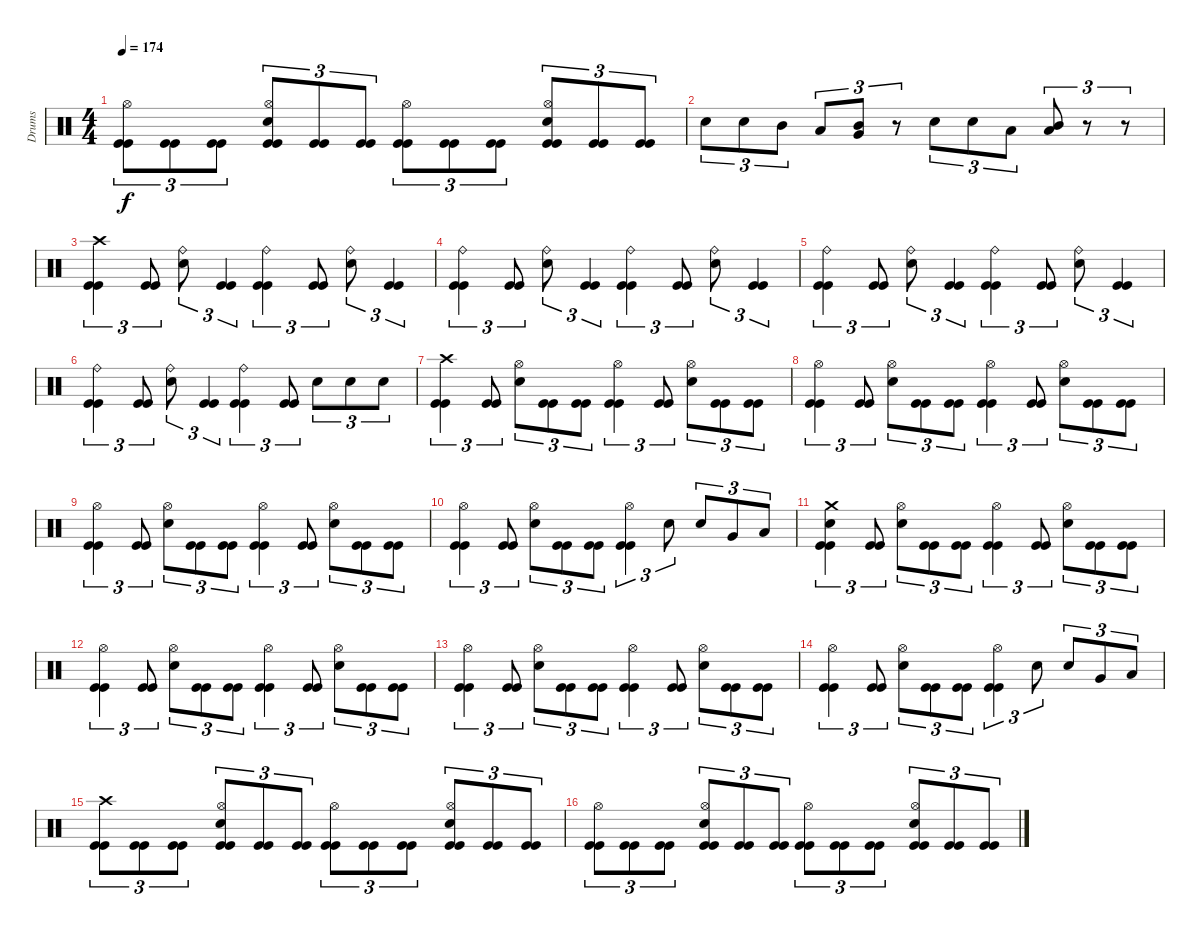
\track ("Drums" "Drums") {instrument percussion}
\staff {score}
\articulation defaults
\ts (4 4)
\tempo 174
\clef neutral
\ks c
("Kick (hit)" "Kick (hit)" "Hi-Hat (open)").8{tu (3 2) dy f} ("Kick (hit)" "Kick (hit)").8{tu (3 2)} ("Kick (hit)" "Kick (hit)").8{tu (3 2)} ("Kick (hit)" "Kick (hit)" "Snare (hit) 2" "Hi-Hat (open)").8{tu (3 2)} ("Kick (hit)" "Kick (hit)").8{tu (3 2)} ("Kick (hit)" "Kick (hit)").8{tu (3 2)} ("Kick (hit)" "Kick (hit)" "Hi-Hat (open)").8{tu (3 2)} ("Kick (hit)" "Kick (hit)").8{tu (3 2)} ("Kick (hit)" "Kick (hit)").8{tu (3 2)} ("Kick (hit)" "Kick (hit)" "Snare (hit) 2" "Hi-Hat (open)").8{tu (3 2)} ("Kick (hit)" "Kick (hit)").8{tu (3 2)} ("Kick (hit)" "Kick (hit)").8{tu (3 2)} |
"Snare (hit) 2".8{tu (3 2)} "Snare (hit) 2".8{tu (3 2)} "Mid Tom (hit)".8{tu (3 2)} "Low Tom (hit)".8{tu (3 2)} ("Very Low Tom (hit)" "Mid Tom (hit)").8{tu (3 2)} r.8{tu (3 2)} "Snare (hit) 2".8{tu (3 2)} "Snare (hit) 2".8{tu (3 2)} "Low Tom (hit)".8{tu (3 2)} ("Low Floor Tom (hit)" "Mid Tom (hit)").8{tu (3 2)} r.8{tu (3 2)} r.8{tu (3 2)} |
("Kick (hit)" "Kick (hit)" "Crash high (hit)").4{tu (3 2)} ("Kick (hit)" "Kick (hit)").8{tu (3 2)} ("Snare (hit) 2" "Ride (bell)").8{tu (3 2)} ("Kick (hit)" "Kick (hit)").4{tu (3 2)} ("Kick (hit)" "Kick (hit)" "Ride (bell)").4{tu (3 2)} ("Kick (hit)" "Kick (hit)").8{tu (3 2)} ("Snare (hit) 2" "Ride (bell)").8{tu (3 2)} ("Kick (hit)" "Kick (hit)").4{tu (3 2)} |
("Kick (hit)" "Kick (hit)" "Ride (bell)").4{tu (3 2)} ("Kick (hit)" "Kick (hit)").8{tu (3 2)} ("Snare (hit) 2" "Ride (bell)").8{tu (3 2)} ("Kick (hit)" "Kick (hit)").4{tu (3 2)} ("Kick (hit)" "Kick (hit)" "Ride (bell)").4{tu (3 2)} ("Kick (hit)" "Kick (hit)").8{tu (3 2)} ("Snare (hit) 2" "Ride (bell)").8{tu (3 2)} ("Kick (hit)" "Kick (hit)").4{tu (3 2)} |
("Kick (hit)" "Kick (hit)" "Ride (bell)").4{tu (3 2)} ("Kick (hit)" "Kick (hit)").8{tu (3 2)} ("Snare (hit) 2" "Ride (bell)").8{tu (3 2)} ("Kick (hit)" "Kick (hit)").4{tu (3 2)} ("Kick (hit)" "Kick (hit)" "Ride (bell)").4{tu (3 2)} ("Kick (hit)" "Kick (hit)").8{tu (3 2)} ("Snare (hit) 2" "Ride (bell)").8{tu (3 2)} ("Kick (hit)" "Kick (hit)").4{tu (3 2)} |
("Kick (hit)" "Kick (hit)" "Ride (bell)").4{tu (3 2)} ("Kick (hit)" "Kick (hit)").8{tu (3 2)} ("Snare (hit) 2" "Ride (bell)").8{tu (3 2)} ("Kick (hit)" "Kick (hit)").4{tu (3 2)} ("Kick (hit)" "Kick (hit)" "Ride (bell)").4{tu (3 2)} ("Kick (hit)" "Kick (hit)").8{tu (3 2)} "Snare (hit) 2".8{tu (3 2)} "Snare (hit) 2".8{tu (3 2)} "Snare (hit) 2".8{tu (3 2)} |
("Kick (hit)" "Kick (hit)" "Crash high (hit)").4{tu (3 2)} ("Kick (hit)" "Kick (hit)").8{tu (3 2)} ("Snare (hit) 2" "Hi-Hat (open)").8{tu (3 2)} ("Kick (hit)" "Kick (hit)").8{tu (3 2)} ("Kick (hit)" "Kick (hit)").8{tu (3 2)} ("Kick (hit)" "Kick (hit)" "Hi-Hat (open)").4{tu (3 2)} ("Kick (hit)" "Kick (hit)").8{tu (3 2)} ("Snare (hit) 2" "Hi-Hat (open)").8{tu (3 2)} ("Kick (hit)" "Kick (hit)").8{tu (3 2)} ("Kick (hit)" "Kick (hit)").8{tu (3 2)} |
("Kick (hit)" "Kick (hit)" "Hi-Hat (open)").4{tu (3 2)} ("Kick (hit)" "Kick (hit)").8{tu (3 2)} ("Snare (hit) 2" "Hi-Hat (open)").8{tu (3 2)} ("Kick (hit)" "Kick (hit)").8{tu (3 2)} ("Kick (hit)" "Kick (hit)").8{tu (3 2)} ("Kick (hit)" "Kick (hit)" "Hi-Hat (open)").4{tu (3 2)} ("Kick (hit)" "Kick (hit)").8{tu (3 2)} ("Snare (hit) 2" "Hi-Hat (open)").8{tu (3 2)} ("Kick (hit)" "Kick (hit)").8{tu (3 2)} ("Kick (hit)" "Kick (hit)").8{tu (3 2)} |
("Kick (hit)" "Kick (hit)" "Hi-Hat (open)").4{tu (3 2)} ("Kick (hit)" "Kick (hit)").8{tu (3 2)} ("Snare (hit) 2" "Hi-Hat (open)").8{tu (3 2)} ("Kick (hit)" "Kick (hit)").8{tu (3 2)} ("Kick (hit)" "Kick (hit)").8{tu (3 2)} ("Kick (hit)" "Kick (hit)" "Hi-Hat (open)").4{tu (3 2)} ("Kick (hit)" "Kick (hit)").8{tu (3 2)} ("Snare (hit) 2" "Hi-Hat (open)").8{tu (3 2)} ("Kick (hit)" "Kick (hit)").8{tu (3 2)} ("Kick (hit)" "Kick (hit)").8{tu (3 2)} |
("Kick (hit)" "Kick (hit)" "Hi-Hat (open)").4{tu (3 2)} ("Kick (hit)" "Kick (hit)").8{tu (3 2)} ("Snare (hit) 2" "Hi-Hat (open)").8{tu (3 2)} ("Kick (hit)" "Kick (hit)").8{tu (3 2)} ("Kick (hit)" "Kick (hit)").8{tu (3 2)} ("Kick (hit)" "Kick (hit)" "Hi-Hat (open)").4{tu (3 2)} "Snare (hit) 2".8{tu (3 2)} "Snare (hit) 2".8{tu (3 2)} "Very Low Tom (hit)".8{tu (3 2)} "Low Floor Tom (hit)".8{tu (3 2)} |
("Kick (hit)" "Kick (hit)" "Crash medium (hit)" "Snare (hit) 2").4{tu (3 2)} ("Kick (hit)" "Kick (hit)").8{tu (3 2)} ("Snare (hit) 2" "Hi-Hat (open)").8{tu (3 2)} ("Kick (hit)" "Kick (hit)").8{tu (3 2)} ("Kick (hit)" "Kick (hit)").8{tu (3 2)} ("Kick (hit)" "Kick (hit)" "Hi-Hat (open)").4{tu (3 2)} ("Kick (hit)" "Kick (hit)").8{tu (3 2)} ("Snare (hit) 2" "Hi-Hat (open)").8{tu (3 2)} ("Kick (hit)" "Kick (hit)").8{tu (3 2)} ("Kick (hit)" "Kick (hit)").8{tu (3 2)} |
("Kick (hit)" "Kick (hit)" "Hi-Hat (open)").4{tu (3 2)} ("Kick (hit)" "Kick (hit)").8{tu (3 2)} ("Snare (hit) 2" "Hi-Hat (open)").8{tu (3 2)} ("Kick (hit)" "Kick (hit)").8{tu (3 2)} ("Kick (hit)" "Kick (hit)").8{tu (3 2)} ("Kick (hit)" "Kick (hit)" "Hi-Hat (open)").4{tu (3 2)} ("Kick (hit)" "Kick (hit)").8{tu (3 2)} ("Snare (hit) 2" "Hi-Hat (open)").8{tu (3 2)} ("Kick (hit)" "Kick (hit)").8{tu (3 2)} ("Kick (hit)" "Kick (hit)").8{tu (3 2)} |
("Kick (hit)" "Kick (hit)" "Hi-Hat (open)").4{tu (3 2)} ("Kick (hit)" "Kick (hit)").8{tu (3 2)} ("Snare (hit) 2" "Hi-Hat (open)").8{tu (3 2)} ("Kick (hit)" "Kick (hit)").8{tu (3 2)} ("Kick (hit)" "Kick (hit)").8{tu (3 2)} ("Kick (hit)" "Kick (hit)" "Hi-Hat (open)").4{tu (3 2)} ("Kick (hit)" "Kick (hit)").8{tu (3 2)} ("Snare (hit) 2" "Hi-Hat (open)").8{tu (3 2)} ("Kick (hit)" "Kick (hit)").8{tu (3 2)} ("Kick (hit)" "Kick (hit)").8{tu (3 2)} |
("Kick (hit)" "Kick (hit)" "Hi-Hat (open)").4{tu (3 2)} ("Kick (hit)" "Kick (hit)").8{tu (3 2)} ("Snare (hit) 2" "Hi-Hat (open)").8{tu (3 2)} ("Kick (hit)" "Kick (hit)").8{tu (3 2)} ("Kick (hit)" "Kick (hit)").8{tu (3 2)} ("Kick (hit)" "Kick (hit)" "Hi-Hat (open)").4{tu (3 2)} "Snare (hit) 2".8{tu (3 2)} "Snare (hit) 2".8{tu (3 2)} "Very Low Tom (hit)".8{tu (3 2)} "Low Floor Tom (hit)".8{tu (3 2)} |
("Kick (hit)" "Kick (hit)" "Crash high (hit)").8{tu (3 2)} ("Kick (hit)" "Kick (hit)").8{tu (3 2)} ("Kick (hit)" "Kick (hit)").8{tu (3 2)} ("Kick (hit)" "Kick (hit)" "Snare (hit) 2" "Hi-Hat (open)").8{tu (3 2)} ("Kick (hit)" "Kick (hit)").8{tu (3 2)} ("Kick (hit)" "Kick (hit)").8{tu (3 2)} ("Kick (hit)" "Kick (hit)" "Hi-Hat (open)").8{tu (3 2)} ("Kick (hit)" "Kick (hit)").8{tu (3 2)} ("Kick (hit)" "Kick (hit)").8{tu (3 2)} ("Kick (hit)" "Kick (hit)" "Snare (hit) 2" "Hi-Hat (open)").8{tu (3 2)} ("Kick (hit)" "Kick (hit)").8{tu (3 2)} ("Kick (hit)" "Kick (hit)").8{tu (3 2)} |
("Kick (hit)" "Kick (hit)" "Hi-Hat (open)").8{tu (3 2)} ("Kick (hit)" "Kick (hit)").8{tu (3 2)} ("Kick (hit)" "Kick (hit)").8{tu (3 2)} ("Kick (hit)" "Kick (hit)" "Snare (hit) 2" "Hi-Hat (open)").8{tu (3 2)} ("Kick (hit)" "Kick (hit)").8{tu (3 2)} ("Kick (hit)" "Kick (hit)").8{tu (3 2)} ("Kick (hit)" "Kick (hit)" "Hi-Hat (open)").8{tu (3 2)} ("Kick (hit)" "Kick (hit)").8{tu (3 2)} ("Kick (hit)" "Kick (hit)").8{tu (3 2)} ("Kick (hit)" "Kick (hit)" "Snare (hit) 2" "Hi-Hat (open)").8{tu (3 2)} ("Kick (hit)" "Kick (hit)").8{tu (3 2)} ("Kick (hit)" "Kick (hit)").8{tu (3 2)}
